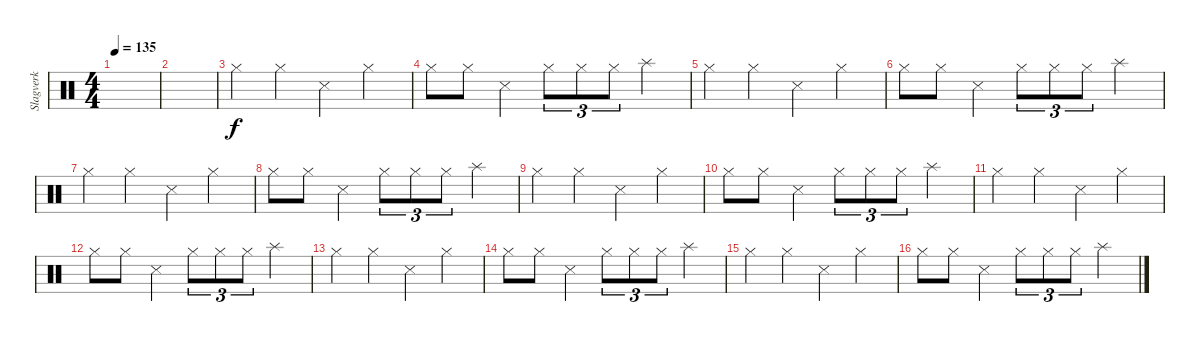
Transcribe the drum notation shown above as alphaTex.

\track ("Slagverk" "Slagverk") {instrument percussion}
\staff {score}
\articulation defaults
\ts (4 4)
\tempo 135
\clef neutral
\ks c
|
|
"Hi-Hat (closed)".4 "Hi-Hat (closed)".4 "Snare (side stick) 3".4 "Hi-Hat (closed)".4 |
"Hi-Hat (closed)".8 "Hi-Hat (closed)".8 "Snare (side stick) 3".4 "Hi-Hat (closed)".8{tu (3 2)} "Hi-Hat (closed)".8{tu (3 2)} "Hi-Hat (closed)".8{tu (3 2)} "Splash (hit)".4 |
"Hi-Hat (closed)".4 "Hi-Hat (closed)".4 "Snare (side stick) 3".4 "Hi-Hat (closed)".4 |
"Hi-Hat (closed)".8 "Hi-Hat (closed)".8 "Snare (side stick) 3".4 "Hi-Hat (closed)".8{tu (3 2)} "Hi-Hat (closed)".8{tu (3 2)} "Hi-Hat (closed)".8{tu (3 2)} "Splash (hit)".4 |
"Hi-Hat (closed)".4 "Hi-Hat (closed)".4 "Snare (side stick) 3".4 "Hi-Hat (closed)".4 |
"Hi-Hat (closed)".8 "Hi-Hat (closed)".8 "Snare (side stick) 3".4 "Hi-Hat (closed)".8{tu (3 2)} "Hi-Hat (closed)".8{tu (3 2)} "Hi-Hat (closed)".8{tu (3 2)} "Splash (hit)".4 |
"Hi-Hat (closed)".4 "Hi-Hat (closed)".4 "Snare (side stick) 3".4 "Hi-Hat (closed)".4 |
"Hi-Hat (closed)".8 "Hi-Hat (closed)".8 "Snare (side stick) 3".4 "Hi-Hat (closed)".8{tu (3 2)} "Hi-Hat (closed)".8{tu (3 2)} "Hi-Hat (closed)".8{tu (3 2)} "Splash (hit)".4 |
"Hi-Hat (closed)".4 "Hi-Hat (closed)".4 "Snare (side stick) 3".4 "Hi-Hat (closed)".4 |
"Hi-Hat (closed)".8 "Hi-Hat (closed)".8 "Snare (side stick) 3".4 "Hi-Hat (closed)".8{tu (3 2)} "Hi-Hat (closed)".8{tu (3 2)} "Hi-Hat (closed)".8{tu (3 2)} "Splash (hit)".4 |
"Hi-Hat (closed)".4 "Hi-Hat (closed)".4 "Snare (side stick) 3".4 "Hi-Hat (closed)".4 |
"Hi-Hat (closed)".8 "Hi-Hat (closed)".8 "Snare (side stick) 3".4 "Hi-Hat (closed)".8{tu (3 2)} "Hi-Hat (closed)".8{tu (3 2)} "Hi-Hat (closed)".8{tu (3 2)} "Splash (hit)".4 |
"Hi-Hat (closed)".4 "Hi-Hat (closed)".4 "Snare (side stick) 3".4 "Hi-Hat (closed)".4 |
"Hi-Hat (closed)".8 "Hi-Hat (closed)".8 "Snare (side stick) 3".4 "Hi-Hat (closed)".8{tu (3 2)} "Hi-Hat (closed)".8{tu (3 2)} "Hi-Hat (closed)".8{tu (3 2)} "Splash (hit)".4
